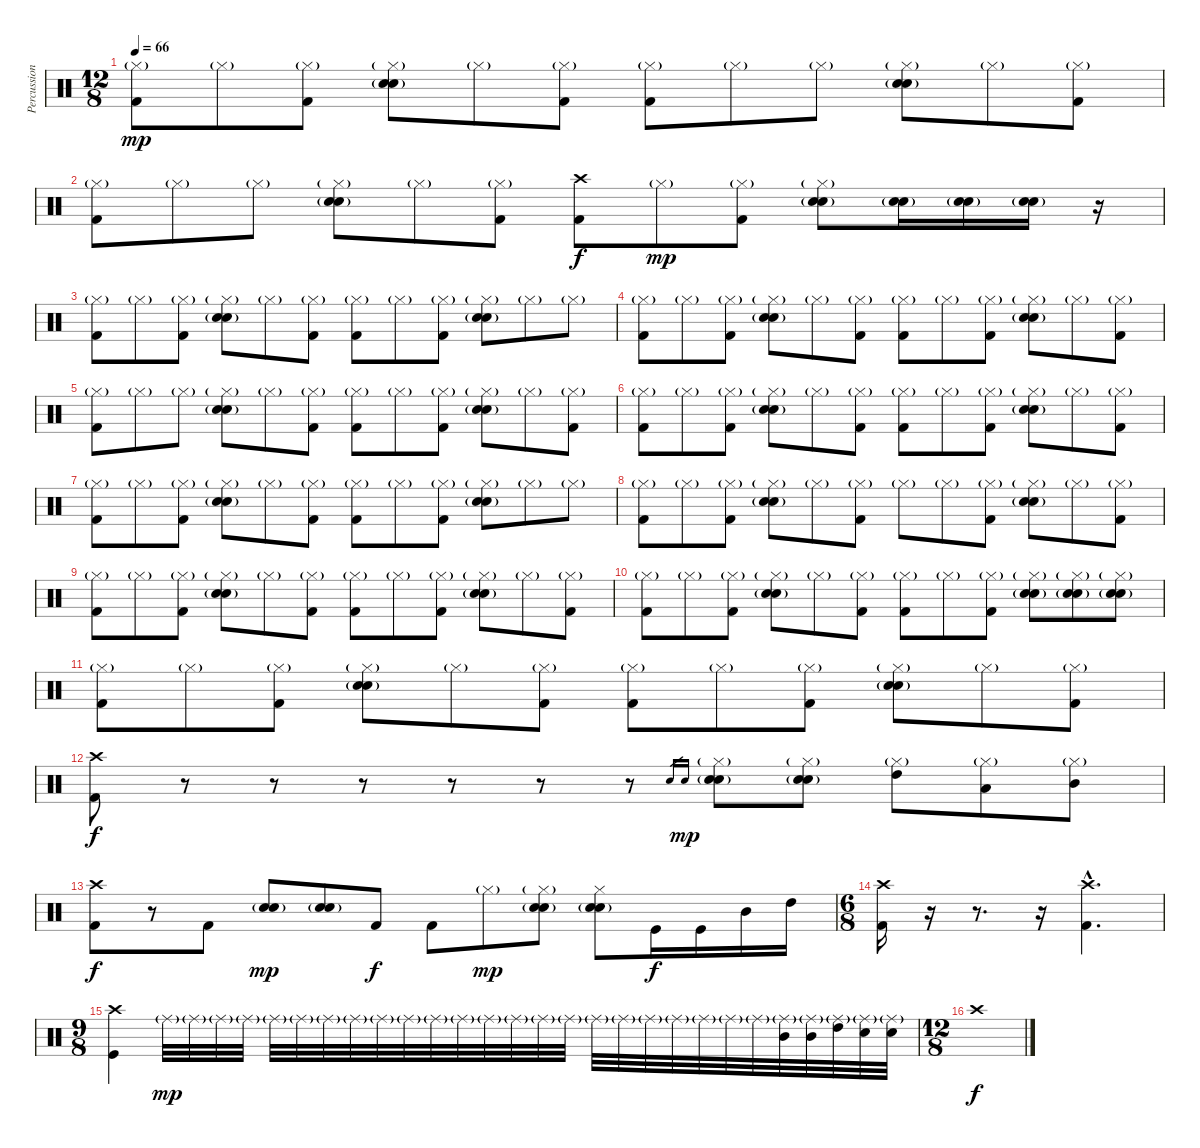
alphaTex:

\track ("Percussion" "Percussion") {instrument percussion}
\staff {score}
\articulation defaults
\ts (12 8)
\tempo 66
\clef neutral
\ks c
("Hi-Hat (closed)"{g} "Kick (hit) 2").8{dy mp} "Hi-Hat (closed)"{g}.8 ("Hi-Hat (closed)"{g} "Kick (hit) 2").8 ("Hi-Hat (closed)"{g} "Snare (hit) 2" "Electric Snare (hit)"{g}).8 "Hi-Hat (closed)"{g}.8 ("Hi-Hat (closed)"{g} "Kick (hit) 2").8 ("Hi-Hat (closed)"{g} "Kick (hit) 2").8 "Hi-Hat (closed)"{g}.8 "Hi-Hat (closed)"{g}.8 ("Hi-Hat (closed)"{g} "Snare (hit) 2" "Electric Snare (hit)"{g}).8 "Hi-Hat (closed)"{g}.8 ("Hi-Hat (closed)"{g} "Kick (hit) 2").8 |
("Hi-Hat (closed)"{g} "Kick (hit) 2").8 "Hi-Hat (closed)"{g}.8 "Hi-Hat (closed)"{g}.8 ("Hi-Hat (closed)"{g} "Snare (hit) 2" "Electric Snare (hit)"{g}).8 "Hi-Hat (closed)"{g}.8 ("Hi-Hat (closed)"{g} "Kick (hit) 2").8 ("Crash high (hit)" "Kick (hit) 2").8{dy f} "Hi-Hat (closed)"{g}.8{dy mp} ("Hi-Hat (closed)"{g} "Kick (hit) 2").8 ("Hi-Hat (closed)"{g} "Snare (hit) 2" "Electric Snare (hit)"{g}).8 ("Snare (hit) 2" "Electric Snare (hit)"{g}).16 ("Snare (hit) 2" "Electric Snare (hit)"{g}).16 ("Snare (hit) 2" "Electric Snare (hit)"{g}).16 r.16 |
("Hi-Hat (closed)"{g} "Kick (hit) 2").8 "Hi-Hat (closed)"{g}.8 ("Hi-Hat (closed)"{g} "Kick (hit) 2").8 ("Hi-Hat (closed)"{g} "Snare (hit) 2" "Electric Snare (hit)"{g}).8 "Hi-Hat (closed)"{g}.8 ("Hi-Hat (closed)"{g} "Kick (hit) 2").8 ("Hi-Hat (closed)"{g} "Kick (hit) 2").8 "Hi-Hat (closed)"{g}.8 ("Hi-Hat (closed)"{g} "Kick (hit) 2").8 ("Hi-Hat (closed)"{g} "Snare (hit) 2" "Electric Snare (hit)"{g}).8 "Hi-Hat (closed)"{g}.8 "Hi-Hat (closed)"{g}.8 |
("Hi-Hat (closed)"{g} "Kick (hit) 2").8 "Hi-Hat (closed)"{g}.8 ("Hi-Hat (closed)"{g} "Kick (hit) 2").8 ("Hi-Hat (closed)"{g} "Snare (hit) 2" "Electric Snare (hit)"{g}).8 "Hi-Hat (closed)"{g}.8 ("Hi-Hat (closed)"{g} "Kick (hit) 2").8 ("Hi-Hat (closed)"{g} "Kick (hit) 2").8 "Hi-Hat (closed)"{g}.8 ("Hi-Hat (closed)"{g} "Kick (hit) 2").8 ("Hi-Hat (closed)"{g} "Snare (hit) 2" "Electric Snare (hit)"{g}).8 "Hi-Hat (closed)"{g}.8 ("Hi-Hat (closed)"{g} "Kick (hit) 2").8 |
("Hi-Hat (closed)"{g} "Kick (hit) 2").8 "Hi-Hat (closed)"{g}.8 "Hi-Hat (closed)"{g}.8 ("Hi-Hat (closed)"{g} "Snare (hit) 2" "Electric Snare (hit)"{g}).8 "Hi-Hat (closed)"{g}.8 ("Hi-Hat (closed)"{g} "Kick (hit) 2").8 ("Hi-Hat (closed)"{g} "Kick (hit) 2").8 "Hi-Hat (closed)"{g}.8 ("Hi-Hat (closed)"{g} "Kick (hit) 2").8 ("Hi-Hat (closed)"{g} "Snare (hit) 2" "Electric Snare (hit)"{g}).8 "Hi-Hat (closed)"{g}.8 ("Hi-Hat (closed)"{g} "Kick (hit) 2").8 |
("Hi-Hat (closed)"{g} "Kick (hit) 2").8 "Hi-Hat (closed)"{g}.8 ("Hi-Hat (closed)"{g} "Kick (hit) 2").8 ("Hi-Hat (closed)"{g} "Snare (hit) 2" "Electric Snare (hit)"{g}).8 "Hi-Hat (closed)"{g}.8 ("Hi-Hat (closed)"{g} "Kick (hit) 2").8 ("Hi-Hat (closed)"{g} "Kick (hit) 2").8 "Hi-Hat (closed)"{g}.8 ("Hi-Hat (closed)"{g} "Kick (hit) 2").8 ("Hi-Hat (closed)"{g} "Snare (hit) 2" "Electric Snare (hit)"{g}).8 "Hi-Hat (closed)"{g}.8 ("Hi-Hat (closed)"{g} "Kick (hit) 2").8 |
("Hi-Hat (closed)"{g} "Kick (hit) 2").8 "Hi-Hat (closed)"{g}.8 ("Hi-Hat (closed)"{g} "Kick (hit) 2").8 ("Hi-Hat (closed)"{g} "Snare (hit) 2" "Electric Snare (hit)"{g}).8 "Hi-Hat (closed)"{g}.8 ("Hi-Hat (closed)"{g} "Kick (hit) 2").8 ("Hi-Hat (closed)"{g} "Kick (hit) 2").8 "Hi-Hat (closed)"{g}.8 ("Hi-Hat (closed)"{g} "Kick (hit) 2").8 ("Hi-Hat (closed)"{g} "Snare (hit) 2" "Electric Snare (hit)"{g}).8 "Hi-Hat (closed)"{g}.8 "Hi-Hat (closed)"{g}.8 |
("Hi-Hat (closed)"{g} "Kick (hit) 2").8 "Hi-Hat (closed)"{g}.8 ("Hi-Hat (closed)"{g} "Kick (hit) 2").8 ("Hi-Hat (closed)"{g} "Snare (hit) 2" "Electric Snare (hit)"{g}).8 "Hi-Hat (closed)"{g}.8 ("Hi-Hat (closed)"{g} "Kick (hit) 2").8 "Hi-Hat (closed)"{g}.8 "Hi-Hat (closed)"{g}.8 ("Hi-Hat (closed)"{g} "Kick (hit) 2").8 ("Hi-Hat (closed)"{g} "Snare (hit) 2" "Electric Snare (hit)"{g}).8 "Hi-Hat (closed)"{g}.8 ("Hi-Hat (closed)"{g} "Kick (hit) 2").8 |
("Hi-Hat (closed)"{g} "Kick (hit) 2").8 "Hi-Hat (closed)"{g}.8 ("Hi-Hat (closed)"{g} "Kick (hit) 2").8 ("Hi-Hat (closed)"{g} "Snare (hit) 2" "Electric Snare (hit)"{g}).8 "Hi-Hat (closed)"{g}.8 ("Hi-Hat (closed)"{g} "Kick (hit) 2").8 ("Hi-Hat (closed)"{g} "Kick (hit) 2").8 "Hi-Hat (closed)"{g}.8 ("Hi-Hat (closed)"{g} "Kick (hit) 2").8 ("Hi-Hat (closed)"{g} "Snare (hit) 2" "Electric Snare (hit)"{g}).8 "Hi-Hat (closed)"{g}.8 ("Hi-Hat (closed)"{g} "Kick (hit) 2").8 |
("Hi-Hat (closed)"{g} "Kick (hit) 2").8 "Hi-Hat (closed)"{g}.8 ("Hi-Hat (closed)"{g} "Kick (hit) 2").8 ("Hi-Hat (closed)"{g} "Snare (hit) 2" "Electric Snare (hit)"{g}).8 "Hi-Hat (closed)"{g}.8 ("Hi-Hat (closed)"{g} "Kick (hit) 2").8 ("Hi-Hat (closed)"{g} "Kick (hit) 2").8 "Hi-Hat (closed)"{g}.8 ("Hi-Hat (closed)"{g} "Kick (hit) 2").8 ("Hi-Hat (closed)"{g} "Snare (hit) 2" "Electric Snare (hit)"{g}).8 ("Hi-Hat (closed)"{g} "Snare (hit) 2" "Electric Snare (hit)"{g}).8 ("Hi-Hat (closed)"{g} "Snare (hit) 2" "Electric Snare (hit)"{g}).8 |
("Hi-Hat (closed)"{g} "Kick (hit) 2").8 "Hi-Hat (closed)"{g}.8 ("Hi-Hat (closed)"{g} "Kick (hit) 2").8 ("Hi-Hat (closed)"{g} "Snare (hit) 2" "Electric Snare (hit)"{g}).8 "Hi-Hat (closed)"{g}.8 ("Hi-Hat (closed)"{g} "Kick (hit) 2").8 ("Hi-Hat (closed)"{g} "Kick (hit) 2").8 "Hi-Hat (closed)"{g}.8 ("Hi-Hat (closed)"{g} "Kick (hit) 2").8 ("Hi-Hat (closed)"{g} "Snare (hit) 2" "Electric Snare (hit)"{g}).8 "Hi-Hat (closed)"{g}.8 ("Hi-Hat (closed)"{g} "Kick (hit) 2").8 |
("Crash high (hit)" "Kick (hit) 2").8{dy f} r.8 r.8 r.8 r.8 r.8 r.8 "Snare (hit) 2".16{gr} "Electric Snare (hit)".16{gr dy mp} ("Hi-Hat (closed)"{g} "Snare (hit) 2" "Electric Snare (hit)"{g}).8 ("Hi-Hat (closed)"{g} "Snare (hit) 2" "Electric Snare (hit)"{g}).8 ("Hi-Hat (closed)"{g} "High Tom (hit)").8 ("Hi-Hat (closed)"{g} "Low Tom (hit)").8 ("Hi-Hat (closed)"{g} "Mid Tom (hit)").8 |
("Crash high (hit)" "Kick (hit) 2").8{dy f} r.8 "Kick (hit) 2".8 ("Snare (hit) 2" "Electric Snare (hit)"{g}).8{dy mp} ("Snare (hit) 2" "Electric Snare (hit)"{g}).8 "Kick (hit) 2".8{dy f} "Kick (hit) 2".8 "Hi-Hat (closed)"{g}.8{dy mp} ("Hi-Hat (closed)"{g} "Snare (hit) 2" "Electric Snare (hit)"{g}).8 ("Hi-Hat (closed)" "Snare (hit) 2" "Electric Snare (hit)"{g}).8 "Kick (hit)".16{dy f} "Kick (hit)".16 "Mid Tom (hit)".16 "High Tom (hit)".16 |
\ts (6 8)
("Crash high (hit)" "Kick (hit) 2").16 r.16 r.8{d} r.16 ("Crash high (hit)"{hac} "Kick (hit) 2"{hac}).4{d} |
\ts (9 8)
("Crash high (hit)" "Kick (hit)").4 "Ride (middle)"{g}.32{dy mp} "Ride (middle)"{g}.32 "Ride (middle)"{g}.32 "Ride (middle)"{g}.32 "Ride (middle)"{g}.32 "Ride (middle)"{g}.32 "Ride (middle)"{g}.32 "Ride (middle)"{g}.32 "Ride (middle)"{g}.32 "Ride (middle)"{g}.32 "Ride (middle)"{g}.32 "Ride (middle)"{g}.32 "Ride (middle)"{g}.32 "Ride (middle)"{g}.32 "Ride (middle)"{g}.32 "Ride (middle)"{g}.32 "Ride (middle)"{g}.32 "Ride (middle)"{g}.32 "Ride (middle)"{g}.32 "Ride (middle)"{g}.32 "Ride (middle)"{g}.32 "Ride (middle)"{g}.32 "Ride (middle)"{g}.32 ("Ride (middle)"{g} "Mid Tom (hit)").32 ("Ride (middle)"{g} "Mid Tom (hit)").32 ("Ride (middle)"{g} "High Tom (hit)").32 ("Ride (middle)"{g} "Electric Snare (hit)").32 ("Ride (middle)"{g} "Electric Snare (hit)").32 |
\ts (12 8)
"Crash high (hit)".1{dy f}
